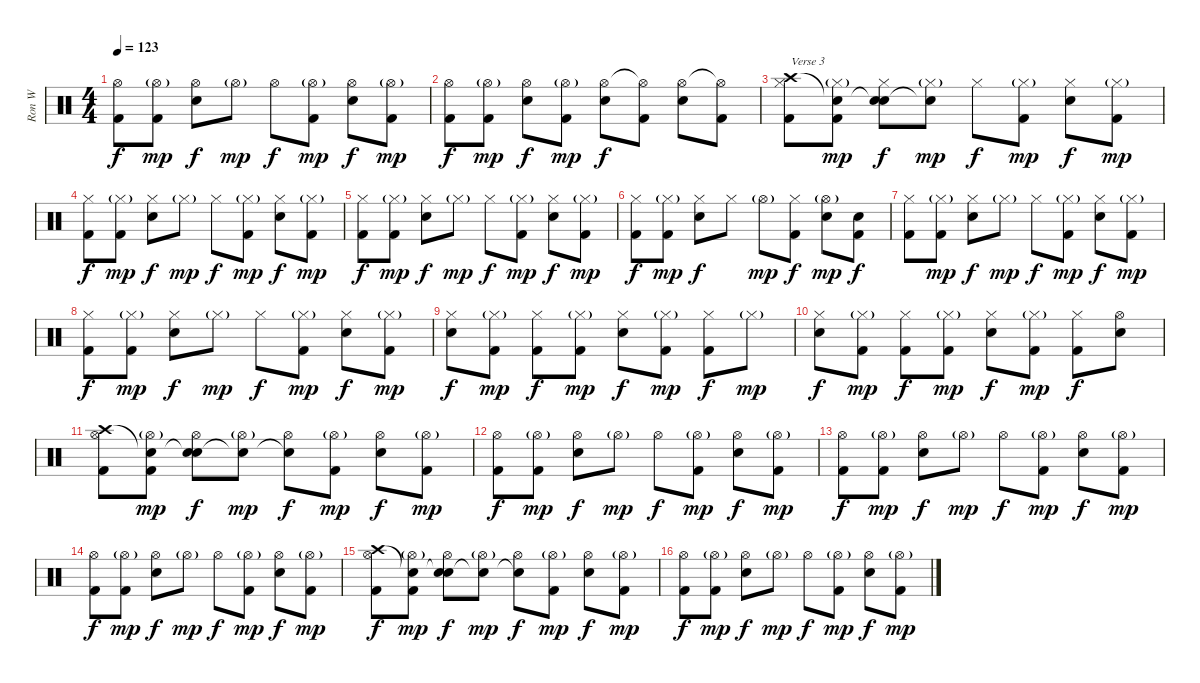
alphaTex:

\track ("Ron W" "Ron W") {instrument percussion}
\staff {score}
\articulation defaults
\ts (4 4)
\tempo 123
\clef neutral
\ks c
("Hi-Hat (open)" "Kick (hit) 2").8{dy f} ("Hi-Hat (open)"{g} "Kick (hit) 2").8{dy mp} ("Hi-Hat (open)" "Electric Snare (hit)").8{dy f} "Hi-Hat (open)"{g}.8{dy mp} "Hi-Hat (open)".8{dy f} ("Hi-Hat (open)"{g} "Kick (hit) 2").8{dy mp} ("Hi-Hat (open)" "Electric Snare (hit)").8{dy f} ("Hi-Hat (open)"{g} "Kick (hit) 2").8{dy mp} |
("Hi-Hat (open)" "Kick (hit) 2").8{dy f} ("Hi-Hat (open)"{g} "Kick (hit) 2").8{dy mp} ("Hi-Hat (open)" "Electric Snare (hit)").8{dy f} ("Hi-Hat (open)"{g} "Kick (hit) 2").8{dy mp} ("Hi-Hat (open)" "Electric Snare (hit)").8{dy f} ("Hi-Hat (open)"{t} "Kick (hit) 2").8 ("Hi-Hat (open)" "Electric Snare (hit)").8 ("Hi-Hat (open)"{t} "Kick (hit) 2").8 |
("Crash high (hit)" "Hi-Hat (closed)" "Kick (hit) 2").8{txt "Verse 3" balance 8} ("Snare (hit)"{t} "Hi-Hat (closed)"{g} "Kick (hit) 2").8{dy mp balance 8} ("Snare (hit)"{t} "Hi-Hat (closed)" "Electric Snare (hit)").8{dy f balance 8} ("Snare (hit)"{t} "Hi-Hat (closed)"{g}).8{dy mp balance 8} "Hi-Hat (closed)".8{dy f} ("Hi-Hat (closed)"{g} "Kick (hit) 2").8{dy mp balance 8} ("Hi-Hat (closed)" "Electric Snare (hit)").8{dy f} ("Hi-Hat (closed)"{g} "Kick (hit) 2").8{dy mp} |
("Hi-Hat (closed)" "Kick (hit) 2").8{dy f balance 8} ("Hi-Hat (closed)"{g} "Kick (hit) 2").8{dy mp} ("Hi-Hat (closed)" "Electric Snare (hit)").8{dy f} "Hi-Hat (closed)"{g}.8{dy mp} "Hi-Hat (closed)".8{dy f} ("Hi-Hat (closed)"{g} "Kick (hit) 2").8{dy mp} ("Hi-Hat (closed)" "Electric Snare (hit)").8{dy f} ("Hi-Hat (closed)"{g} "Kick (hit) 2").8{dy mp} |
("Hi-Hat (closed)" "Kick (hit) 2").8{dy f balance 8} ("Hi-Hat (closed)"{g} "Kick (hit) 2").8{dy mp} ("Hi-Hat (closed)" "Electric Snare (hit)").8{dy f} "Hi-Hat (closed)"{g}.8{dy mp} "Hi-Hat (closed)".8{dy f} ("Hi-Hat (closed)"{g} "Kick (hit) 2").8{dy mp} ("Hi-Hat (closed)" "Electric Snare (hit)").8{dy f} ("Hi-Hat (closed)"{g} "Kick (hit) 2").8{dy mp} |
("Hi-Hat (closed)" "Kick (hit) 2").8{dy f balance 8} ("Hi-Hat (closed)"{g} "Kick (hit) 2").8{dy mp} ("Hi-Hat (closed)" "Electric Snare (hit)").8{dy f} "Hi-Hat (closed)".8 "Hi-Hat (open)"{g}.8{dy mp} ("Hi-Hat (closed)" "Kick (hit) 2").8{dy f} ("Hi-Hat (open)"{g} "Electric Snare (hit)").8{dy mp} ("Snare (hit)" "Kick (hit) 2").8{dy f} |
("Hi-Hat (closed)" "Kick (hit) 2").8{balance 8} ("Hi-Hat (closed)"{g} "Kick (hit) 2").8{dy mp} ("Hi-Hat (closed)" "Electric Snare (hit)").8{dy f} "Hi-Hat (closed)"{g}.8{dy mp} "Hi-Hat (closed)".8{dy f} ("Hi-Hat (closed)"{g} "Kick (hit) 2").8{dy mp} ("Hi-Hat (closed)" "Electric Snare (hit)").8{dy f} ("Hi-Hat (closed)"{g} "Kick (hit) 2").8{dy mp} |
("Hi-Hat (closed)" "Kick (hit) 2").8{dy f balance 8} ("Hi-Hat (closed)"{g} "Kick (hit) 2").8{dy mp} ("Hi-Hat (closed)" "Electric Snare (hit)").8{dy f} "Hi-Hat (closed)"{g}.8{dy mp} "Hi-Hat (closed)".8{dy f} ("Hi-Hat (closed)"{g} "Kick (hit) 2").8{dy mp} ("Hi-Hat (closed)" "Electric Snare (hit)").8{dy f} ("Hi-Hat (closed)"{g} "Kick (hit) 2").8{dy mp} |
("Hi-Hat (closed)" "Electric Snare (hit)").8{dy f balance 8} ("Hi-Hat (closed)"{g} "Kick (hit) 2").8{dy mp} ("Hi-Hat (closed)" "Kick (hit) 2").8{dy f} ("Hi-Hat (closed)"{g} "Kick (hit) 2").8{dy mp} ("Hi-Hat (closed)" "Electric Snare (hit)").8{dy f} ("Hi-Hat (closed)"{g} "Kick (hit) 2").8{dy mp} ("Hi-Hat (closed)" "Kick (hit) 2").8{dy f} "Hi-Hat (closed)"{g}.8{dy mp} |
("Hi-Hat (closed)" "Electric Snare (hit)").8{dy f balance 8} ("Hi-Hat (closed)"{g} "Kick (hit) 2").8{dy mp} ("Hi-Hat (closed)" "Kick (hit) 2").8{dy f} ("Hi-Hat (closed)"{g} "Kick (hit) 2").8{dy mp} ("Hi-Hat (closed)" "Electric Snare (hit)").8{dy f} ("Hi-Hat (closed)"{g} "Kick (hit) 2").8{dy mp} ("Hi-Hat (closed)" "Kick (hit) 2").8{dy f} ("Hi-Hat (open)" "Electric Snare (hit)").8 |
("Crash high (hit)" "Hi-Hat (open)" "Kick (hit) 2").8{balance 8} ("Snare (hit)"{t} "Hi-Hat (open)"{g} "Kick (hit) 2").8{dy mp} ("Snare (hit)"{t} "Hi-Hat (open)" "Electric Snare (hit)").8{dy f} ("Snare (hit)"{t} "Hi-Hat (open)"{g}).8{dy mp} ("Snare (hit)"{t} "Hi-Hat (open)").8{dy f} ("Hi-Hat (open)"{g} "Kick (hit) 2").8{dy mp} ("Hi-Hat (open)" "Electric Snare (hit)").8{dy f} ("Hi-Hat (open)"{g} "Kick (hit) 2").8{dy mp} |
("Hi-Hat (open)" "Kick (hit) 2").8{dy f} ("Hi-Hat (open)"{g} "Kick (hit) 2").8{dy mp} ("Hi-Hat (open)" "Electric Snare (hit)").8{dy f} "Hi-Hat (open)"{g}.8{dy mp} "Hi-Hat (open)".8{dy f} ("Hi-Hat (open)"{g} "Kick (hit) 2").8{dy mp} ("Hi-Hat (open)" "Electric Snare (hit)").8{dy f} ("Hi-Hat (open)"{g} "Kick (hit) 2").8{dy mp} |
("Hi-Hat (open)" "Kick (hit) 2").8{dy f} ("Hi-Hat (open)"{g} "Kick (hit) 2").8{dy mp} ("Hi-Hat (open)" "Electric Snare (hit)").8{dy f} "Hi-Hat (open)"{g}.8{dy mp} "Hi-Hat (open)".8{dy f} ("Hi-Hat (open)"{g} "Kick (hit) 2").8{dy mp} ("Hi-Hat (open)" "Electric Snare (hit)").8{dy f} ("Hi-Hat (open)"{g} "Kick (hit) 2").8{dy mp} |
("Hi-Hat (open)" "Kick (hit) 2").8{dy f} ("Hi-Hat (open)"{g} "Kick (hit) 2").8{dy mp} ("Hi-Hat (open)" "Electric Snare (hit)").8{dy f} "Hi-Hat (open)"{g}.8{dy mp} "Hi-Hat (open)".8{dy f} ("Hi-Hat (open)"{g} "Kick (hit) 2").8{dy mp} ("Hi-Hat (open)" "Electric Snare (hit)").8{dy f} ("Hi-Hat (open)"{g} "Kick (hit) 2").8{dy mp} |
("Crash high (hit)" "Hi-Hat (open)" "Kick (hit) 2").8{dy f} ("Snare (hit)"{t} "Hi-Hat (open)"{g} "Kick (hit) 2").8{dy mp} ("Snare (hit)"{t} "Hi-Hat (open)" "Electric Snare (hit)").8{dy f} ("Snare (hit)"{t} "Hi-Hat (open)"{g}).8{dy mp} ("Snare (hit)"{t} "Hi-Hat (open)").8{dy f} ("Hi-Hat (open)"{g} "Kick (hit) 2").8{dy mp} ("Hi-Hat (open)" "Electric Snare (hit)").8{dy f} ("Hi-Hat (open)"{g} "Kick (hit) 2").8{dy mp} |
("Hi-Hat (open)" "Kick (hit) 2").8{dy f} ("Hi-Hat (open)"{g} "Kick (hit) 2").8{dy mp} ("Hi-Hat (open)" "Electric Snare (hit)").8{dy f} "Hi-Hat (open)"{g}.8{dy mp} "Hi-Hat (open)".8{dy f} ("Hi-Hat (open)"{g} "Kick (hit) 2").8{dy mp} ("Hi-Hat (open)" "Electric Snare (hit)").8{dy f} ("Hi-Hat (open)"{g} "Kick (hit) 2").8{dy mp}
